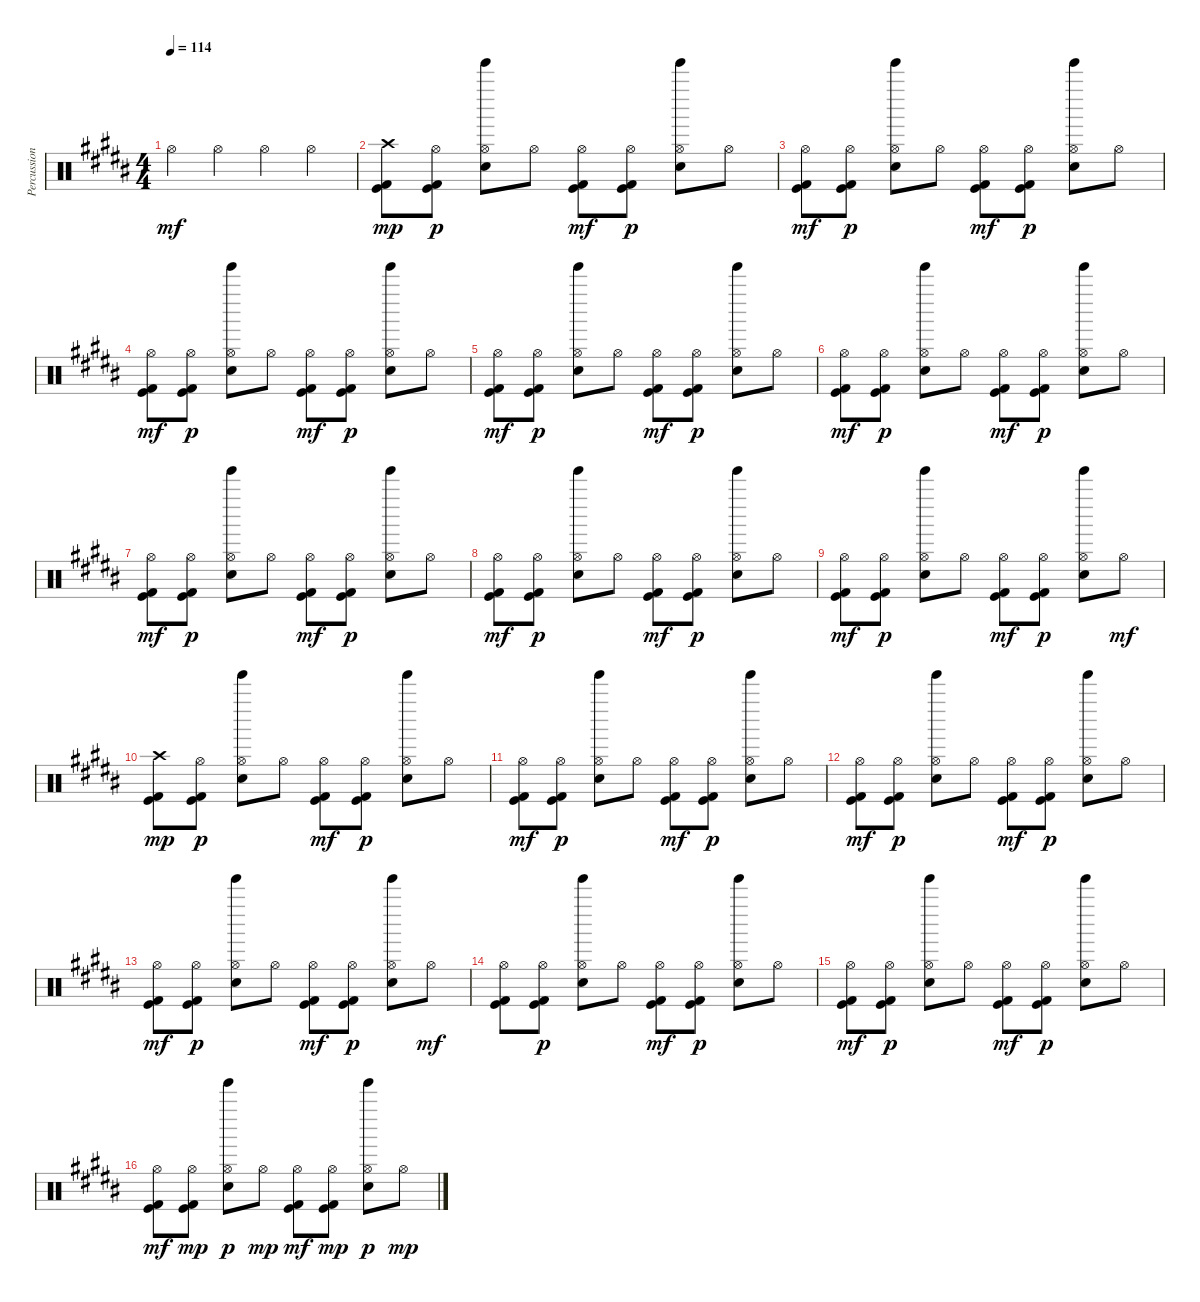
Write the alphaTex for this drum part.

\track ("Percussion" "Percussion") {instrument percussion}
\staff {score}
\articulation defaults
\ts (4 4)
\tempo 114
\clef neutral
\ks g#minor "Hi-Hat (open)".4{dy mf} "Hi-Hat (open)".4 "Hi-Hat (open)".4 "Hi-Hat (open)".4
|
("Crash high (hit)" "Kick (hit)" "Kick (hit) 2").8{dy mp} ("Hi-Hat (open)" "Kick (hit)" "Kick (hit) 2").8{dy p} ("Hi-Hat (open)" "Electric Snare (hit)" "Tinkle Bell (hit)").8 "Hi-Hat (open)".8 ("Hi-Hat (open)" "Kick (hit)" "Kick (hit) 2").8{dy mf} ("Hi-Hat (open)" "Kick (hit)" "Kick (hit) 2").8{dy p} ("Hi-Hat (open)" "Electric Snare (hit)" "Tinkle Bell (hit)").8 "Hi-Hat (open)".8 |
("Hi-Hat (open)" "Kick (hit)" "Kick (hit) 2").8{dy mf} ("Hi-Hat (open)" "Kick (hit)" "Kick (hit) 2").8{dy p} ("Hi-Hat (open)" "Electric Snare (hit)" "Tinkle Bell (hit)").8 "Hi-Hat (open)".8 ("Hi-Hat (open)" "Kick (hit)" "Kick (hit) 2").8{dy mf} ("Hi-Hat (open)" "Kick (hit)" "Kick (hit) 2").8{dy p} ("Hi-Hat (open)" "Electric Snare (hit)" "Tinkle Bell (hit)").8 "Hi-Hat (open)".8 |
("Hi-Hat (open)" "Kick (hit)" "Kick (hit) 2").8{dy mf} ("Hi-Hat (open)" "Kick (hit)" "Kick (hit) 2").8{dy p} ("Hi-Hat (open)" "Electric Snare (hit)" "Tinkle Bell (hit)").8 "Hi-Hat (open)".8 ("Hi-Hat (open)" "Kick (hit)" "Kick (hit) 2").8{dy mf} ("Hi-Hat (open)" "Kick (hit)" "Kick (hit) 2").8{dy p} ("Hi-Hat (open)" "Electric Snare (hit)" "Tinkle Bell (hit)").8 "Hi-Hat (open)".8 |
("Hi-Hat (open)" "Kick (hit)" "Kick (hit) 2").8{dy mf} ("Hi-Hat (open)" "Kick (hit)" "Kick (hit) 2").8{dy p} ("Hi-Hat (open)" "Electric Snare (hit)" "Tinkle Bell (hit)").8 "Hi-Hat (open)".8 ("Hi-Hat (open)" "Kick (hit)" "Kick (hit) 2").8{dy mf} ("Hi-Hat (open)" "Kick (hit)" "Kick (hit) 2").8{dy p} ("Hi-Hat (open)" "Electric Snare (hit)" "Tinkle Bell (hit)").8 "Hi-Hat (open)".8 |
("Hi-Hat (open)" "Kick (hit)" "Kick (hit) 2").8{dy mf} ("Hi-Hat (open)" "Kick (hit)" "Kick (hit) 2").8{dy p} ("Hi-Hat (open)" "Electric Snare (hit)" "Tinkle Bell (hit)").8 "Hi-Hat (open)".8 ("Hi-Hat (open)" "Kick (hit)" "Kick (hit) 2").8{dy mf} ("Hi-Hat (open)" "Kick (hit)" "Kick (hit) 2").8{dy p} ("Hi-Hat (open)" "Electric Snare (hit)" "Tinkle Bell (hit)").8 "Hi-Hat (open)".8 |
("Hi-Hat (open)" "Kick (hit)" "Kick (hit) 2").8{dy mf} ("Hi-Hat (open)" "Kick (hit)" "Kick (hit) 2").8{dy p} ("Hi-Hat (open)" "Electric Snare (hit)" "Tinkle Bell (hit)").8 "Hi-Hat (open)".8 ("Hi-Hat (open)" "Kick (hit)" "Kick (hit) 2").8{dy mf} ("Hi-Hat (open)" "Kick (hit)" "Kick (hit) 2").8{dy p} ("Hi-Hat (open)" "Electric Snare (hit)" "Tinkle Bell (hit)").8 "Hi-Hat (open)".8 |
("Hi-Hat (open)" "Kick (hit)" "Kick (hit) 2").8{dy mf} ("Hi-Hat (open)" "Kick (hit)" "Kick (hit) 2").8{dy p} ("Hi-Hat (open)" "Electric Snare (hit)" "Tinkle Bell (hit)").8 "Hi-Hat (open)".8 ("Hi-Hat (open)" "Kick (hit)" "Kick (hit) 2").8{dy mf} ("Hi-Hat (open)" "Kick (hit)" "Kick (hit) 2").8{dy p} ("Hi-Hat (open)" "Electric Snare (hit)" "Tinkle Bell (hit)").8 "Hi-Hat (open)".8 |
("Hi-Hat (open)" "Kick (hit)" "Kick (hit) 2").8{dy mf} ("Hi-Hat (open)" "Kick (hit)" "Kick (hit) 2").8{dy p} ("Hi-Hat (open)" "Electric Snare (hit)" "Tinkle Bell (hit)").8 "Hi-Hat (open)".8 ("Hi-Hat (open)" "Kick (hit)" "Kick (hit) 2").8{dy mf} ("Hi-Hat (open)" "Kick (hit)" "Kick (hit) 2").8{dy p} ("Hi-Hat (open)" "Electric Snare (hit)" "Tinkle Bell (hit)").8 "Hi-Hat (open)".8{dy mf} |
("Crash high (hit)" "Kick (hit)" "Kick (hit) 2").8{dy mp} ("Hi-Hat (open)" "Kick (hit)" "Kick (hit) 2").8{dy p} ("Hi-Hat (open)" "Electric Snare (hit)" "Tinkle Bell (hit)").8 "Hi-Hat (open)".8 ("Hi-Hat (open)" "Kick (hit)" "Kick (hit) 2").8{dy mf} ("Hi-Hat (open)" "Kick (hit)" "Kick (hit) 2").8{dy p} ("Hi-Hat (open)" "Electric Snare (hit)" "Tinkle Bell (hit)").8 "Hi-Hat (open)".8 |
("Hi-Hat (open)" "Kick (hit)" "Kick (hit) 2").8{dy mf} ("Hi-Hat (open)" "Kick (hit)" "Kick (hit) 2").8{dy p} ("Hi-Hat (open)" "Electric Snare (hit)" "Tinkle Bell (hit)").8 "Hi-Hat (open)".8 ("Hi-Hat (open)" "Kick (hit)" "Kick (hit) 2").8{dy mf} ("Hi-Hat (open)" "Kick (hit)" "Kick (hit) 2").8{dy p} ("Hi-Hat (open)" "Electric Snare (hit)" "Tinkle Bell (hit)").8 "Hi-Hat (open)".8 |
("Hi-Hat (open)" "Kick (hit)" "Kick (hit) 2").8{dy mf} ("Hi-Hat (open)" "Kick (hit)" "Kick (hit) 2").8{dy p} ("Hi-Hat (open)" "Electric Snare (hit)" "Tinkle Bell (hit)").8 "Hi-Hat (open)".8 ("Hi-Hat (open)" "Kick (hit)" "Kick (hit) 2").8{dy mf} ("Hi-Hat (open)" "Kick (hit)" "Kick (hit) 2").8{dy p} ("Hi-Hat (open)" "Electric Snare (hit)" "Tinkle Bell (hit)").8 "Hi-Hat (open)".8 |
("Hi-Hat (open)" "Kick (hit)" "Kick (hit) 2").8{dy mf} ("Hi-Hat (open)" "Kick (hit)" "Kick (hit) 2").8{dy p} ("Hi-Hat (open)" "Electric Snare (hit)" "Tinkle Bell (hit)").8 "Hi-Hat (open)".8 ("Hi-Hat (open)" "Kick (hit)" "Kick (hit) 2").8{dy mf} ("Hi-Hat (open)" "Kick (hit)" "Kick (hit) 2").8{dy p} ("Hi-Hat (open)" "Electric Snare (hit)" "Tinkle Bell (hit)").8 "Hi-Hat (open)".8{dy mf} |
("Hi-Hat (open)" "Kick (hit)" "Kick (hit) 2").8 ("Hi-Hat (open)" "Kick (hit)" "Kick (hit) 2").8{dy p} ("Hi-Hat (open)" "Electric Snare (hit)" "Tinkle Bell (hit)").8 "Hi-Hat (open)".8 ("Hi-Hat (open)" "Kick (hit)" "Kick (hit) 2").8{dy mf} ("Hi-Hat (open)" "Kick (hit)" "Kick (hit) 2").8{dy p} ("Hi-Hat (open)" "Electric Snare (hit)" "Tinkle Bell (hit)").8 "Hi-Hat (open)".8 |
("Hi-Hat (open)" "Kick (hit)" "Kick (hit) 2").8{dy mf} ("Hi-Hat (open)" "Kick (hit)" "Kick (hit) 2").8{dy p} ("Hi-Hat (open)" "Electric Snare (hit)" "Tinkle Bell (hit)").8 "Hi-Hat (open)".8 ("Hi-Hat (open)" "Kick (hit)" "Kick (hit) 2").8{dy mf} ("Hi-Hat (open)" "Kick (hit)" "Kick (hit) 2").8{dy p} ("Hi-Hat (open)" "Electric Snare (hit)" "Tinkle Bell (hit)").8 "Hi-Hat (open)".8 |
("Hi-Hat (open)" "Kick (hit)" "Kick (hit) 2").8{dy mf} ("Hi-Hat (open)" "Kick (hit)" "Kick (hit) 2").8{dy mp} ("Hi-Hat (open)" "Electric Snare (hit)" "Tinkle Bell (hit)").8{dy p} "Hi-Hat (open)".8{dy mp} ("Hi-Hat (open)" "Kick (hit)" "Kick (hit) 2").8{dy mf} ("Hi-Hat (open)" "Kick (hit)" "Kick (hit) 2").8{dy mp} ("Hi-Hat (open)" "Electric Snare (hit)" "Tinkle Bell (hit)").8{dy p} "Hi-Hat (open)".8{dy mp}
